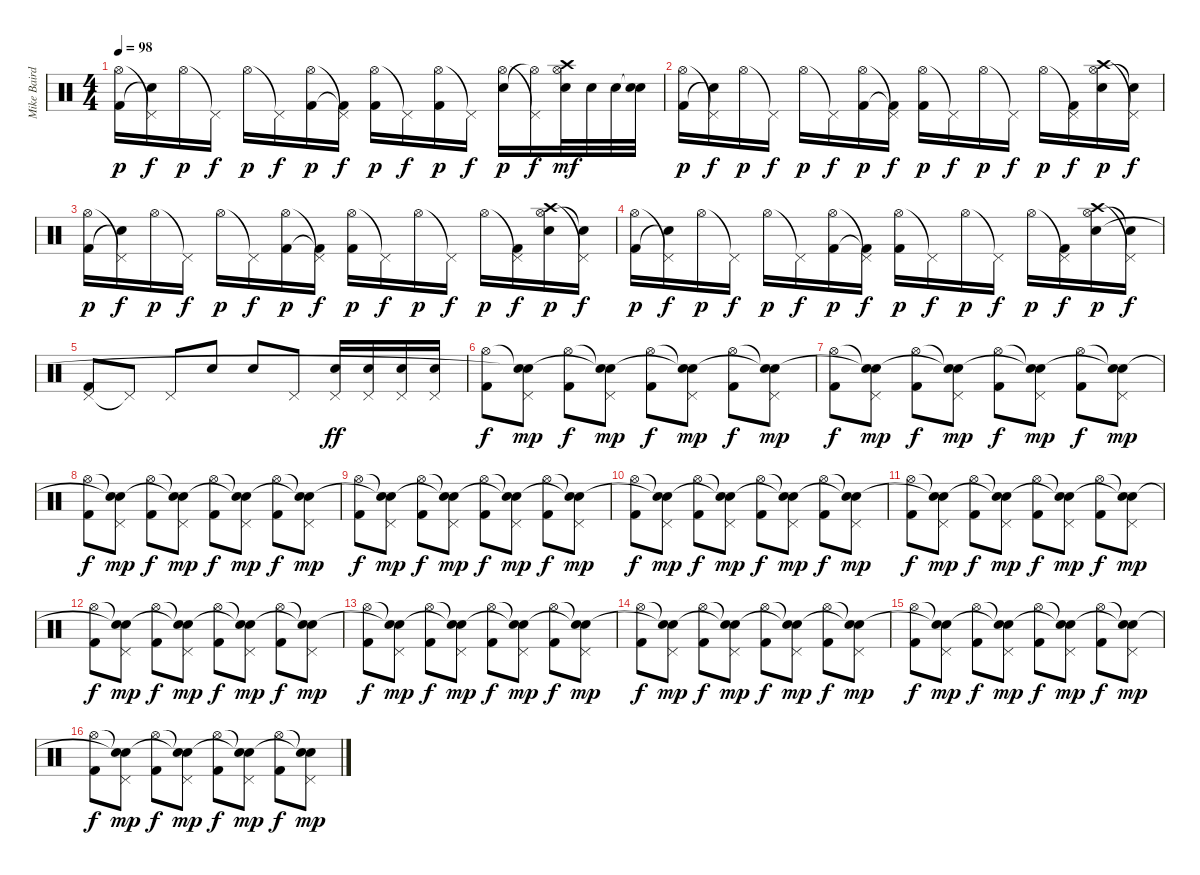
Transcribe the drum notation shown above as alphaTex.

\track ("Mike Baird [drums]" "Mike Baird") {instrument percussion}
\staff {score}
\articulation defaults
\ts (4 4)
\tempo 98
\clef neutral
\ks c
("Hi-Hat (open)" "Kick (hit) 2").16{dy p} ("Pedal Hi-Hat (hit)"{t} "Snare (hit)"{t}).16{dy f} "Hi-Hat (open)".16{dy p} "Pedal Hi-Hat (hit)"{t}.16{dy f} "Hi-Hat (open)".16{dy p} "Pedal Hi-Hat (hit)"{t}.16{dy f} ("Hi-Hat (open)" "Kick (hit) 2").16{dy p} ("Pedal Hi-Hat (hit)"{t} "Kick (hit) 2"{t}).16{dy f} ("Hi-Hat (open)" "Kick (hit) 2").16{dy p} "Pedal Hi-Hat (hit)"{t}.16{dy f} ("Hi-Hat (open)" "Kick (hit) 2").16{dy p} "Pedal Hi-Hat (hit)"{t}.16{dy f} ("Hi-Hat (open)" "Electric Snare (hit)").16{dy p} ("Pedal Hi-Hat (hit)"{t} "Hi-Hat (open)"{t}).16{dy f} ("Crash high (hit)" "Hi-Hat (open)" "Electric Snare (hit)").32{dy mf} "Electric Snare (hit)".32 "Electric Snare (hit)".32 ("Snare (hit)"{t} "Electric Snare (hit)").32 |
("Hi-Hat (open)" "Kick (hit) 2").16{dy p} ("Pedal Hi-Hat (hit)"{t} "Snare (hit)"{t}).16{dy f} "Hi-Hat (open)".16{dy p} "Pedal Hi-Hat (hit)"{t}.16{dy f} "Hi-Hat (open)".16{dy p} "Pedal Hi-Hat (hit)"{t}.16{dy f} ("Hi-Hat (open)" "Kick (hit) 2").16{dy p} ("Pedal Hi-Hat (hit)"{t} "Kick (hit) 2"{t}).16{dy f} ("Hi-Hat (open)" "Kick (hit) 2").16{dy p} "Pedal Hi-Hat (hit)"{t}.16{dy f} "Hi-Hat (open)".16{dy p} "Pedal Hi-Hat (hit)"{t}.16{dy f} "Hi-Hat (open)".16{dy p} ("Pedal Hi-Hat (hit)"{t} "Kick (hit) 2").16{dy f} ("Crash high (hit)" "Hi-Hat (open)" "Electric Snare (hit)").16{dy p} ("Pedal Hi-Hat (hit)"{t} "Snare (hit)"{t}).16{dy f} |
("Hi-Hat (open)" "Kick (hit) 2").16{dy p} ("Pedal Hi-Hat (hit)"{t} "Snare (hit)"{t}).16{dy f} "Hi-Hat (open)".16{dy p} "Pedal Hi-Hat (hit)"{t}.16{dy f} "Hi-Hat (open)".16{dy p} "Pedal Hi-Hat (hit)"{t}.16{dy f} ("Hi-Hat (open)" "Kick (hit) 2").16{dy p} ("Pedal Hi-Hat (hit)"{t} "Kick (hit) 2"{t}).16{dy f} ("Hi-Hat (open)" "Kick (hit) 2").16{dy p} "Pedal Hi-Hat (hit)"{t}.16{dy f} "Hi-Hat (open)".16{dy p} "Pedal Hi-Hat (hit)"{t}.16{dy f} "Hi-Hat (open)".16{dy p} ("Pedal Hi-Hat (hit)"{t} "Kick (hit) 2").16{dy f} ("Crash high (hit)" "Hi-Hat (open)" "Electric Snare (hit)").16{dy p} ("Pedal Hi-Hat (hit)"{t} "Snare (hit)"{t}).16{dy f} |
("Hi-Hat (open)" "Kick (hit) 2").16{dy p} ("Pedal Hi-Hat (hit)"{t} "Snare (hit)"{t}).16{dy f} "Hi-Hat (open)".16{dy p} "Pedal Hi-Hat (hit)"{t}.16{dy f} "Hi-Hat (open)".16{dy p} "Pedal Hi-Hat (hit)"{t}.16{dy f} ("Hi-Hat (open)" "Kick (hit) 2").16{dy p} ("Pedal Hi-Hat (hit)"{t} "Kick (hit) 2"{t}).16{dy f} ("Hi-Hat (open)" "Kick (hit) 2").16{dy p} "Pedal Hi-Hat (hit)"{t}.16{dy f} "Hi-Hat (open)".16{dy p} "Pedal Hi-Hat (hit)"{t}.16{dy f} "Hi-Hat (open)".16{dy p} ("Pedal Hi-Hat (hit)"{t} "Kick (hit) 2").16{dy f} ("Crash high (hit)" "Hi-Hat (open)" "Electric Snare (hit)").16{dy p} ("Pedal Hi-Hat (hit)"{t} "Snare (hit)"{t}).16{dy f} |
("Pedal Hi-Hat (hit)" "Kick (hit) 2").8 "Pedal Hi-Hat (hit)"{t}.8 "Pedal Hi-Hat (hit)".8 "Snare (hit) 2".8 "Snare (hit) 2".8 "Pedal Hi-Hat (hit)".8 ("Pedal Hi-Hat (hit)" "Electric Snare (hit)").16{dy ff} ("Pedal Hi-Hat (hit)" "Electric Snare (hit)").16 ("Pedal Hi-Hat (hit)" "Electric Snare (hit)").16 ("Pedal Hi-Hat (hit)" "Electric Snare (hit)").16 |
("Hi-Hat (open)" "Kick (hit) 2").8{dy f} ("Snare (hit)"{t} "Pedal Hi-Hat (hit)" "Snare (hit)"{t}).8{dy mp} ("Hi-Hat (open)" "Kick (hit) 2").8{dy f} ("Snare (hit)"{t} "Pedal Hi-Hat (hit)" "Snare (hit)"{t}).8{dy mp} ("Hi-Hat (open)" "Kick (hit) 2").8{dy f} ("Snare (hit)"{t} "Pedal Hi-Hat (hit)" "Snare (hit)"{t}).8{dy mp} ("Hi-Hat (open)" "Kick (hit) 2").8{dy f} ("Snare (hit)"{t} "Pedal Hi-Hat (hit)" "Snare (hit)"{t}).8{dy mp} |
("Hi-Hat (open)" "Kick (hit) 2").8{dy f} ("Snare (hit)"{t} "Pedal Hi-Hat (hit)" "Snare (hit)"{t}).8{dy mp} ("Hi-Hat (open)" "Kick (hit) 2").8{dy f} ("Snare (hit)"{t} "Pedal Hi-Hat (hit)" "Snare (hit)"{t}).8{dy mp} ("Hi-Hat (open)" "Kick (hit) 2").8{dy f} ("Snare (hit)"{t} "Pedal Hi-Hat (hit)" "Snare (hit)"{t}).8{dy mp} ("Hi-Hat (open)" "Kick (hit) 2").8{dy f} ("Snare (hit)"{t} "Pedal Hi-Hat (hit)" "Snare (hit)"{t}).8{dy mp} |
("Hi-Hat (open)" "Kick (hit) 2").8{dy f} ("Snare (hit)"{t} "Pedal Hi-Hat (hit)" "Snare (hit)"{t}).8{dy mp} ("Hi-Hat (open)" "Kick (hit) 2").8{dy f} ("Snare (hit)"{t} "Pedal Hi-Hat (hit)" "Snare (hit)"{t}).8{dy mp} ("Hi-Hat (open)" "Kick (hit) 2").8{dy f} ("Snare (hit)"{t} "Pedal Hi-Hat (hit)" "Snare (hit)"{t}).8{dy mp} ("Hi-Hat (open)" "Kick (hit) 2").8{dy f} ("Snare (hit)"{t} "Pedal Hi-Hat (hit)" "Snare (hit)"{t}).8{dy mp} |
("Hi-Hat (open)" "Kick (hit) 2").8{dy f} ("Snare (hit)"{t} "Pedal Hi-Hat (hit)" "Snare (hit)"{t}).8{dy mp} ("Hi-Hat (open)" "Kick (hit) 2").8{dy f} ("Snare (hit)"{t} "Pedal Hi-Hat (hit)" "Snare (hit)"{t}).8{dy mp} ("Hi-Hat (open)" "Kick (hit) 2").8{dy f} ("Snare (hit)"{t} "Pedal Hi-Hat (hit)" "Snare (hit)"{t}).8{dy mp} ("Hi-Hat (open)" "Kick (hit) 2").8{dy f} ("Snare (hit)"{t} "Pedal Hi-Hat (hit)" "Snare (hit)"{t}).8{dy mp} |
("Hi-Hat (open)" "Kick (hit) 2").8{dy f} ("Snare (hit)"{t} "Pedal Hi-Hat (hit)" "Snare (hit)"{t}).8{dy mp} ("Hi-Hat (open)" "Kick (hit) 2").8{dy f} ("Snare (hit)"{t} "Pedal Hi-Hat (hit)" "Snare (hit)"{t}).8{dy mp} ("Hi-Hat (open)" "Kick (hit) 2").8{dy f} ("Snare (hit)"{t} "Pedal Hi-Hat (hit)" "Snare (hit)"{t}).8{dy mp} ("Hi-Hat (open)" "Kick (hit) 2").8{dy f} ("Snare (hit)"{t} "Pedal Hi-Hat (hit)" "Snare (hit)"{t}).8{dy mp} |
("Hi-Hat (open)" "Kick (hit) 2").8{dy f} ("Snare (hit)"{t} "Pedal Hi-Hat (hit)" "Snare (hit)"{t}).8{dy mp} ("Hi-Hat (open)" "Kick (hit) 2").8{dy f} ("Snare (hit)"{t} "Pedal Hi-Hat (hit)" "Snare (hit)"{t}).8{dy mp} ("Hi-Hat (open)" "Kick (hit) 2").8{dy f} ("Snare (hit)"{t} "Pedal Hi-Hat (hit)" "Snare (hit)"{t}).8{dy mp} ("Hi-Hat (open)" "Kick (hit) 2").8{dy f} ("Snare (hit)"{t} "Pedal Hi-Hat (hit)" "Snare (hit)"{t}).8{dy mp} |
("Hi-Hat (open)" "Kick (hit) 2").8{dy f} ("Snare (hit)"{t} "Pedal Hi-Hat (hit)" "Snare (hit)"{t}).8{dy mp} ("Hi-Hat (open)" "Kick (hit) 2").8{dy f} ("Snare (hit)"{t} "Pedal Hi-Hat (hit)" "Snare (hit)"{t}).8{dy mp} ("Hi-Hat (open)" "Kick (hit) 2").8{dy f} ("Snare (hit)"{t} "Pedal Hi-Hat (hit)" "Snare (hit)"{t}).8{dy mp} ("Hi-Hat (open)" "Kick (hit) 2").8{dy f} ("Snare (hit)"{t} "Pedal Hi-Hat (hit)" "Snare (hit)"{t}).8{dy mp} |
("Hi-Hat (open)" "Kick (hit) 2").8{dy f} ("Snare (hit)"{t} "Pedal Hi-Hat (hit)" "Snare (hit)"{t}).8{dy mp} ("Hi-Hat (open)" "Kick (hit) 2").8{dy f} ("Snare (hit)"{t} "Pedal Hi-Hat (hit)" "Snare (hit)"{t}).8{dy mp} ("Hi-Hat (open)" "Kick (hit) 2").8{dy f} ("Snare (hit)"{t} "Pedal Hi-Hat (hit)" "Snare (hit)"{t}).8{dy mp} ("Hi-Hat (open)" "Kick (hit) 2").8{dy f} ("Snare (hit)"{t} "Pedal Hi-Hat (hit)" "Snare (hit)"{t}).8{dy mp} |
("Hi-Hat (open)" "Kick (hit) 2").8{dy f} ("Snare (hit)"{t} "Pedal Hi-Hat (hit)" "Snare (hit)"{t}).8{dy mp} ("Hi-Hat (open)" "Kick (hit) 2").8{dy f} ("Snare (hit)"{t} "Pedal Hi-Hat (hit)" "Snare (hit)"{t}).8{dy mp} ("Hi-Hat (open)" "Kick (hit) 2").8{dy f} ("Snare (hit)"{t} "Pedal Hi-Hat (hit)" "Snare (hit)"{t}).8{dy mp} ("Hi-Hat (open)" "Kick (hit) 2").8{dy f} ("Snare (hit)"{t} "Pedal Hi-Hat (hit)" "Snare (hit)"{t}).8{dy mp} |
("Hi-Hat (open)" "Kick (hit) 2").8{dy f} ("Snare (hit)"{t} "Pedal Hi-Hat (hit)" "Snare (hit)"{t}).8{dy mp} ("Hi-Hat (open)" "Kick (hit) 2").8{dy f} ("Snare (hit)"{t} "Pedal Hi-Hat (hit)" "Snare (hit)"{t}).8{dy mp} ("Hi-Hat (open)" "Kick (hit) 2").8{dy f} ("Snare (hit)"{t} "Pedal Hi-Hat (hit)" "Snare (hit)"{t}).8{dy mp} ("Hi-Hat (open)" "Kick (hit) 2").8{dy f} ("Snare (hit)"{t} "Pedal Hi-Hat (hit)" "Snare (hit)"{t}).8{dy mp} |
("Hi-Hat (open)" "Kick (hit) 2").8{dy f} ("Snare (hit)"{t} "Pedal Hi-Hat (hit)" "Snare (hit)"{t}).8{dy mp} ("Hi-Hat (open)" "Kick (hit) 2").8{dy f} ("Snare (hit)"{t} "Pedal Hi-Hat (hit)" "Snare (hit)"{t}).8{dy mp} ("Hi-Hat (open)" "Kick (hit) 2").8{dy f} ("Snare (hit)"{t} "Pedal Hi-Hat (hit)" "Snare (hit)"{t}).8{dy mp} ("Hi-Hat (open)" "Kick (hit) 2").8{dy f} ("Snare (hit)"{t} "Pedal Hi-Hat (hit)" "Snare (hit)"{t}).8{dy mp}
